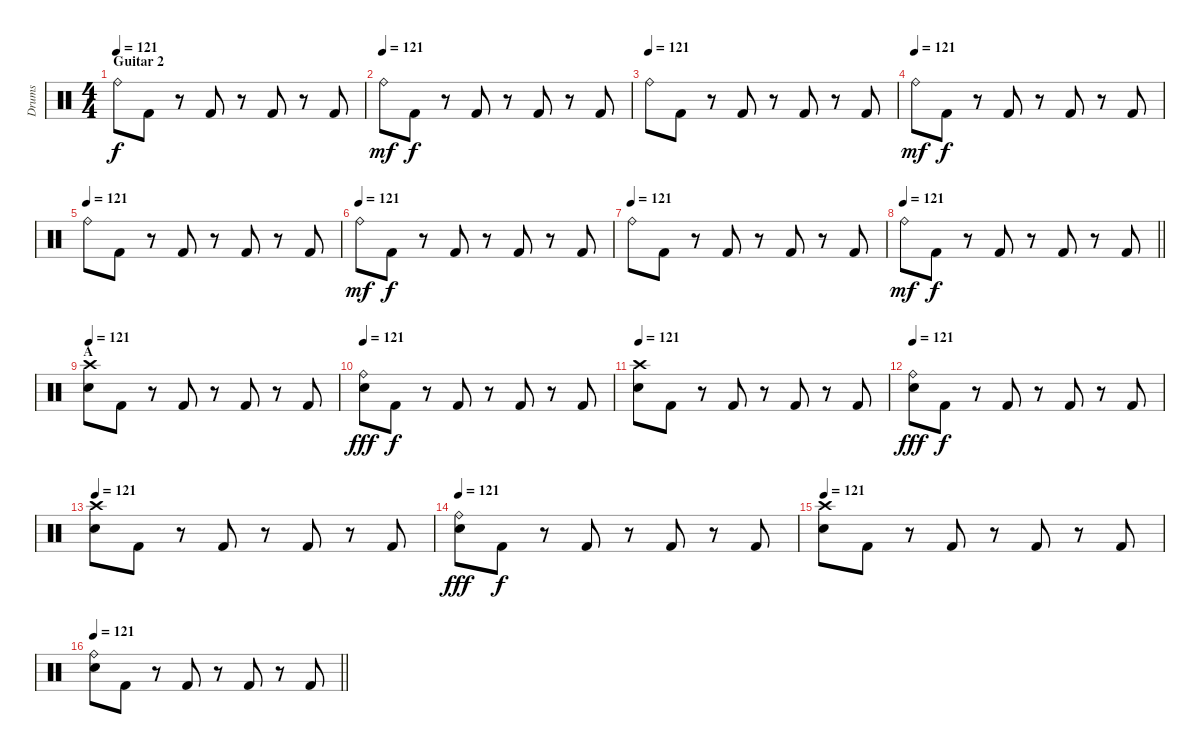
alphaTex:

\track ("Drums" "Drums") {instrument percussion}
\staff {score}
\articulation defaults
\ts (4 4)
\section ("" "Guitar 2")
\tempo 121
\clef neutral
\ks c "Ride (bell)".8{dy f} "Kick (hit) 2".8
r.8 "Kick (hit) 2".8 r.8 "Kick (hit) 2".8 r.8 "Kick (hit) 2".8 |
\tempo (121)
"Ride (bell)".8{dy mf} "Kick (hit) 2".8{dy f} r.8 "Kick (hit) 2".8 r.8 "Kick (hit) 2".8 r.8 "Kick (hit) 2".8 |
\tempo (121)
"Ride (bell)".8 "Kick (hit) 2".8 r.8 "Kick (hit) 2".8 r.8 "Kick (hit) 2".8 r.8 "Kick (hit) 2".8 |
\tempo (121)
"Ride (bell)".8{dy mf} "Kick (hit) 2".8{dy f} r.8 "Kick (hit) 2".8 r.8 "Kick (hit) 2".8 r.8 "Kick (hit) 2".8 |
\tempo (121)
"Ride (bell)".8 "Kick (hit) 2".8 r.8 "Kick (hit) 2".8 r.8 "Kick (hit) 2".8 r.8 "Kick (hit) 2".8 |
\tempo (121)
"Ride (bell)".8{dy mf} "Kick (hit) 2".8{dy f} r.8 "Kick (hit) 2".8 r.8 "Kick (hit) 2".8 r.8 "Kick (hit) 2".8 |
\tempo (121)
"Ride (bell)".8 "Kick (hit) 2".8 r.8 "Kick (hit) 2".8 r.8 "Kick (hit) 2".8 r.8 "Kick (hit) 2".8 |
\tempo 121
\barLineRight lightlight "Ride (bell)".8{dy mf} "Kick (hit) 2".8{dy f}
r.8 "Kick (hit) 2".8 r.8 "Kick (hit) 2".8 r.8 "Kick (hit) 2".8 |
\section ("" "A")
\tempo 121
("Crash high (hit)" "Snare (hit) 2").8 "Kick (hit) 2".8 r.8 "Kick (hit) 2".8 r.8 "Kick (hit) 2".8 r.8 "Kick (hit) 2".8 |
\tempo 121
("Ride (bell)" "Snare (hit) 2").8{dy fff} "Kick (hit) 2".8{dy f} r.8 "Kick (hit) 2".8 r.8 "Kick (hit) 2".8 r.8 "Kick (hit) 2".8 |
\tempo 121
("Crash high (hit)" "Snare (hit) 2").8 "Kick (hit) 2".8 r.8 "Kick (hit) 2".8 r.8 "Kick (hit) 2".8 r.8 "Kick (hit) 2".8 |
\tempo 121
("Ride (bell)" "Snare (hit) 2").8{dy fff} "Kick (hit) 2".8{dy f} r.8 "Kick (hit) 2".8 r.8 "Kick (hit) 2".8 r.8 "Kick (hit) 2".8 |
\tempo 121
("Crash high (hit)" "Snare (hit) 2").8 "Kick (hit) 2".8 r.8 "Kick (hit) 2".8 r.8 "Kick (hit) 2".8 r.8 "Kick (hit) 2".8 |
\tempo 121
("Ride (bell)" "Snare (hit) 2").8{dy fff} "Kick (hit) 2".8{dy f} r.8 "Kick (hit) 2".8 r.8 "Kick (hit) 2".8 r.8 "Kick (hit) 2".8 |
\tempo 121
("Crash high (hit)" "Snare (hit) 2").8 "Kick (hit) 2".8 r.8 "Kick (hit) 2".8 r.8 "Kick (hit) 2".8 r.8 "Kick (hit) 2".8 |
\tempo 121
\barLineRight lightlight
("Ride (bell)" "Snare (hit) 2").8 "Kick (hit) 2".8 r.8 "Kick (hit) 2".8 r.8 "Kick (hit) 2".8 r.8 "Kick (hit) 2".8
